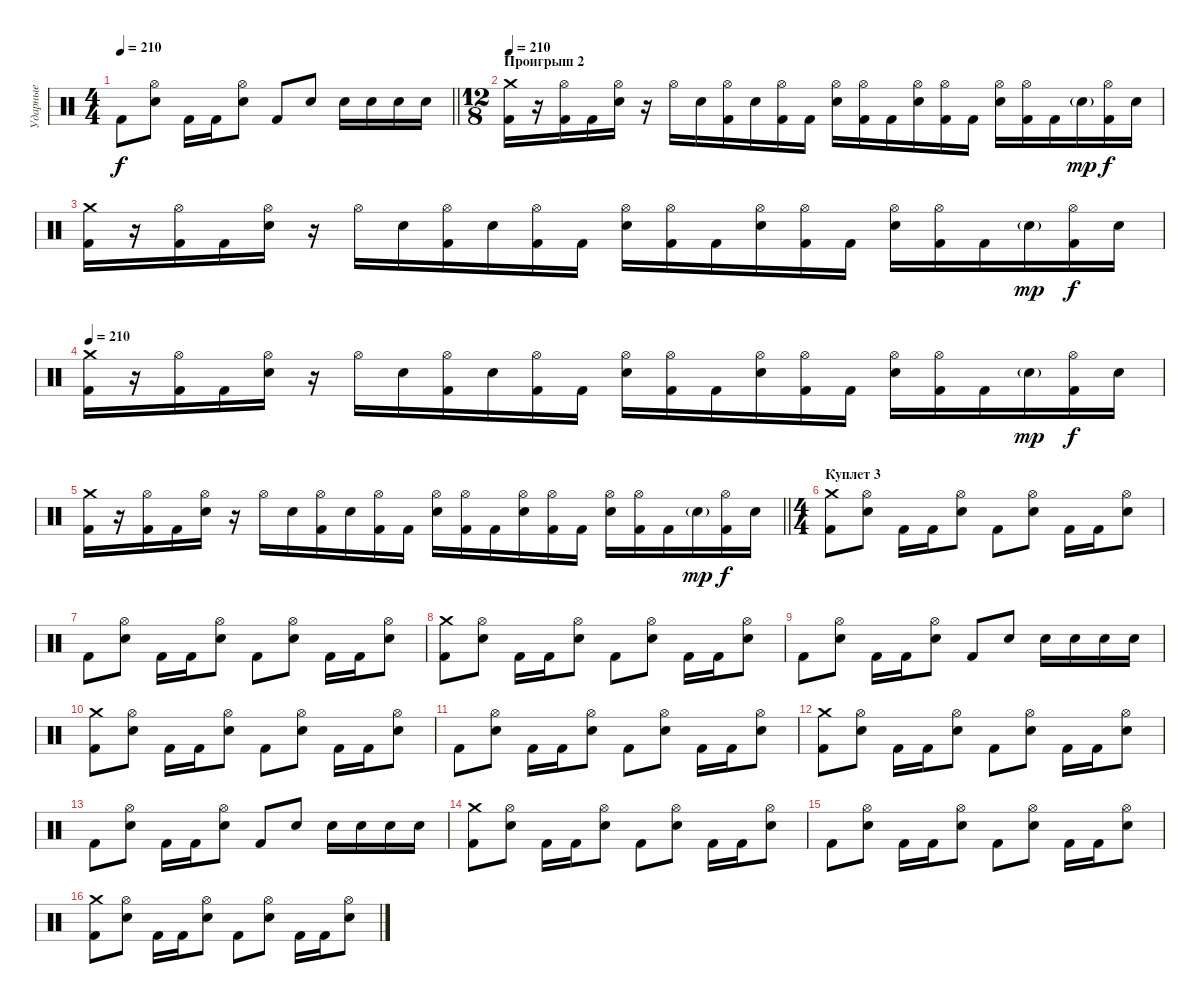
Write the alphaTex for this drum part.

\track ("Ударные" "Ударные") {instrument percussion}
\staff {score}
\articulation defaults
\ts (4 4)
\tempo 210
\clef neutral
\barLineRight lightlight
\ks c "Kick (hit) 2".8{dy f}
("Electric Snare (hit)" "Hi-Hat (open)").8 "Kick (hit) 2".16 "Kick (hit) 2".16 ("Electric Snare (hit)" "Hi-Hat (open)").8 "Kick (hit) 2".8 "Electric Snare (hit)".8 "Electric Snare (hit)".16 "Electric Snare (hit)".16 "Electric Snare (hit)".16 "Electric Snare (hit)".16 |
\ts (12 8)
\section ("" "Проигрыш 2")
\tempo 210
("Kick (hit) 2" "Crash medium (hit)").16 r.16 ("Kick (hit) 2" "Hi-Hat (open)").16 "Kick (hit) 2".16 ("Electric Snare (hit)" "Hi-Hat (open)").16 r.16 "Hi-Hat (open)".16 "Electric Snare (hit)".16 ("Kick (hit) 2" "Hi-Hat (open)").16 "Electric Snare (hit)".16 ("Kick (hit) 2" "Hi-Hat (open)").16 "Kick (hit) 2".16 ("Electric Snare (hit)" "Hi-Hat (open)").16 ("Kick (hit) 2" "Hi-Hat (open)").16 "Kick (hit) 2".16 ("Electric Snare (hit)" "Hi-Hat (open)").16 ("Kick (hit) 2" "Hi-Hat (open)").16 "Kick (hit) 2".16 ("Electric Snare (hit)" "Hi-Hat (open)").16 ("Kick (hit) 2" "Hi-Hat (open)").16 "Kick (hit) 2".16 "Electric Snare (hit)"{g}.16{dy mp} ("Kick (hit) 2" "Hi-Hat (open)").16{dy f} "Electric Snare (hit)".16 |
("Kick (hit) 2" "Crash medium (hit)").16 r.16 ("Kick (hit) 2" "Hi-Hat (open)").16 "Kick (hit) 2".16 ("Electric Snare (hit)" "Hi-Hat (open)").16 r.16 "Hi-Hat (open)".16 "Electric Snare (hit)".16 ("Kick (hit) 2" "Hi-Hat (open)").16 "Electric Snare (hit)".16 ("Kick (hit) 2" "Hi-Hat (open)").16 "Kick (hit) 2".16 ("Electric Snare (hit)" "Hi-Hat (open)").16 ("Kick (hit) 2" "Hi-Hat (open)").16 "Kick (hit) 2".16 ("Electric Snare (hit)" "Hi-Hat (open)").16 ("Kick (hit) 2" "Hi-Hat (open)").16 "Kick (hit) 2".16 ("Electric Snare (hit)" "Hi-Hat (open)").16 ("Kick (hit) 2" "Hi-Hat (open)").16 "Kick (hit) 2".16 "Electric Snare (hit)"{g}.16{dy mp} ("Kick (hit) 2" "Hi-Hat (open)").16{dy f} "Electric Snare (hit)".16 |
\tempo 210
("Kick (hit) 2" "Crash medium (hit)").16 r.16 ("Kick (hit) 2" "Hi-Hat (open)").16 "Kick (hit) 2".16 ("Electric Snare (hit)" "Hi-Hat (open)").16 r.16 "Hi-Hat (open)".16 "Electric Snare (hit)".16 ("Kick (hit) 2" "Hi-Hat (open)").16 "Electric Snare (hit)".16 ("Kick (hit) 2" "Hi-Hat (open)").16 "Kick (hit) 2".16 ("Electric Snare (hit)" "Hi-Hat (open)").16 ("Kick (hit) 2" "Hi-Hat (open)").16 "Kick (hit) 2".16 ("Electric Snare (hit)" "Hi-Hat (open)").16 ("Kick (hit) 2" "Hi-Hat (open)").16 "Kick (hit) 2".16 ("Electric Snare (hit)" "Hi-Hat (open)").16 ("Kick (hit) 2" "Hi-Hat (open)").16 "Kick (hit) 2".16 "Electric Snare (hit)"{g}.16{dy mp} ("Kick (hit) 2" "Hi-Hat (open)").16{dy f} "Electric Snare (hit)".16 |
\barLineRight lightlight
("Kick (hit) 2" "Crash medium (hit)").16 r.16 ("Kick (hit) 2" "Hi-Hat (open)").16 "Kick (hit) 2".16 ("Electric Snare (hit)" "Hi-Hat (open)").16 r.16 "Hi-Hat (open)".16 "Electric Snare (hit)".16 ("Kick (hit) 2" "Hi-Hat (open)").16 "Electric Snare (hit)".16 ("Kick (hit) 2" "Hi-Hat (open)").16 "Kick (hit) 2".16 ("Electric Snare (hit)" "Hi-Hat (open)").16 ("Kick (hit) 2" "Hi-Hat (open)").16 "Kick (hit) 2".16 ("Electric Snare (hit)" "Hi-Hat (open)").16 ("Kick (hit) 2" "Hi-Hat (open)").16 "Kick (hit) 2".16 ("Electric Snare (hit)" "Hi-Hat (open)").16 ("Kick (hit) 2" "Hi-Hat (open)").16 "Kick (hit) 2".16 "Electric Snare (hit)"{g}.16{dy mp} ("Kick (hit) 2" "Hi-Hat (open)").16{dy f} "Electric Snare (hit)".16 |
\ts (4 4)
\section ("" "Куплет 3")
("Kick (hit) 2" "Crash medium (hit)").8 ("Electric Snare (hit)" "Hi-Hat (open)").8 "Kick (hit) 2".16 "Kick (hit) 2".16 ("Electric Snare (hit)" "Hi-Hat (open)").8 "Kick (hit) 2".8 ("Electric Snare (hit)" "Hi-Hat (open)").8 "Kick (hit) 2".16 "Kick (hit) 2".16 ("Electric Snare (hit)" "Hi-Hat (open)").8 |
"Kick (hit) 2".8 ("Electric Snare (hit)" "Hi-Hat (open)").8 "Kick (hit) 2".16 "Kick (hit) 2".16 ("Electric Snare (hit)" "Hi-Hat (open)").8 "Kick (hit) 2".8 ("Electric Snare (hit)" "Hi-Hat (open)").8 "Kick (hit) 2".16 "Kick (hit) 2".16 ("Electric Snare (hit)" "Hi-Hat (open)").8 |
("Kick (hit) 2" "Crash medium (hit)").8 ("Electric Snare (hit)" "Hi-Hat (open)").8 "Kick (hit) 2".16 "Kick (hit) 2".16 ("Electric Snare (hit)" "Hi-Hat (open)").8 "Kick (hit) 2".8 ("Electric Snare (hit)" "Hi-Hat (open)").8 "Kick (hit) 2".16 "Kick (hit) 2".16 ("Electric Snare (hit)" "Hi-Hat (open)").8 |
"Kick (hit) 2".8 ("Electric Snare (hit)" "Hi-Hat (open)").8 "Kick (hit) 2".16 "Kick (hit) 2".16 ("Electric Snare (hit)" "Hi-Hat (open)").8 "Kick (hit) 2".8 "Electric Snare (hit)".8 "Electric Snare (hit)".16 "Electric Snare (hit)".16 "Electric Snare (hit)".16 "Electric Snare (hit)".16 |
("Kick (hit) 2" "Crash medium (hit)").8 ("Electric Snare (hit)" "Hi-Hat (open)").8 "Kick (hit) 2".16 "Kick (hit) 2".16 ("Electric Snare (hit)" "Hi-Hat (open)").8 "Kick (hit) 2".8 ("Electric Snare (hit)" "Hi-Hat (open)").8 "Kick (hit) 2".16 "Kick (hit) 2".16 ("Electric Snare (hit)" "Hi-Hat (open)").8 |
"Kick (hit) 2".8 ("Electric Snare (hit)" "Hi-Hat (open)").8 "Kick (hit) 2".16 "Kick (hit) 2".16 ("Electric Snare (hit)" "Hi-Hat (open)").8 "Kick (hit) 2".8 ("Electric Snare (hit)" "Hi-Hat (open)").8 "Kick (hit) 2".16 "Kick (hit) 2".16 ("Electric Snare (hit)" "Hi-Hat (open)").8 |
("Kick (hit) 2" "Crash medium (hit)").8 ("Electric Snare (hit)" "Hi-Hat (open)").8 "Kick (hit) 2".16 "Kick (hit) 2".16 ("Electric Snare (hit)" "Hi-Hat (open)").8 "Kick (hit) 2".8 ("Electric Snare (hit)" "Hi-Hat (open)").8 "Kick (hit) 2".16 "Kick (hit) 2".16 ("Electric Snare (hit)" "Hi-Hat (open)").8 |
"Kick (hit) 2".8 ("Electric Snare (hit)" "Hi-Hat (open)").8 "Kick (hit) 2".16 "Kick (hit) 2".16 ("Electric Snare (hit)" "Hi-Hat (open)").8 "Kick (hit) 2".8 "Electric Snare (hit)".8 "Electric Snare (hit)".16 "Electric Snare (hit)".16 "Electric Snare (hit)".16 "Electric Snare (hit)".16 |
("Kick (hit) 2" "Crash medium (hit)").8 ("Electric Snare (hit)" "Hi-Hat (open)").8 "Kick (hit) 2".16 "Kick (hit) 2".16 ("Electric Snare (hit)" "Hi-Hat (open)").8 "Kick (hit) 2".8 ("Electric Snare (hit)" "Hi-Hat (open)").8 "Kick (hit) 2".16 "Kick (hit) 2".16 ("Electric Snare (hit)" "Hi-Hat (open)").8 |
"Kick (hit) 2".8 ("Electric Snare (hit)" "Hi-Hat (open)").8 "Kick (hit) 2".16 "Kick (hit) 2".16 ("Electric Snare (hit)" "Hi-Hat (open)").8 "Kick (hit) 2".8 ("Electric Snare (hit)" "Hi-Hat (open)").8 "Kick (hit) 2".16 "Kick (hit) 2".16 ("Electric Snare (hit)" "Hi-Hat (open)").8 |
("Kick (hit) 2" "Crash medium (hit)").8 ("Electric Snare (hit)" "Hi-Hat (open)").8 "Kick (hit) 2".16 "Kick (hit) 2".16 ("Electric Snare (hit)" "Hi-Hat (open)").8 "Kick (hit) 2".8 ("Electric Snare (hit)" "Hi-Hat (open)").8 "Kick (hit) 2".16 "Kick (hit) 2".16 ("Electric Snare (hit)" "Hi-Hat (open)").8
